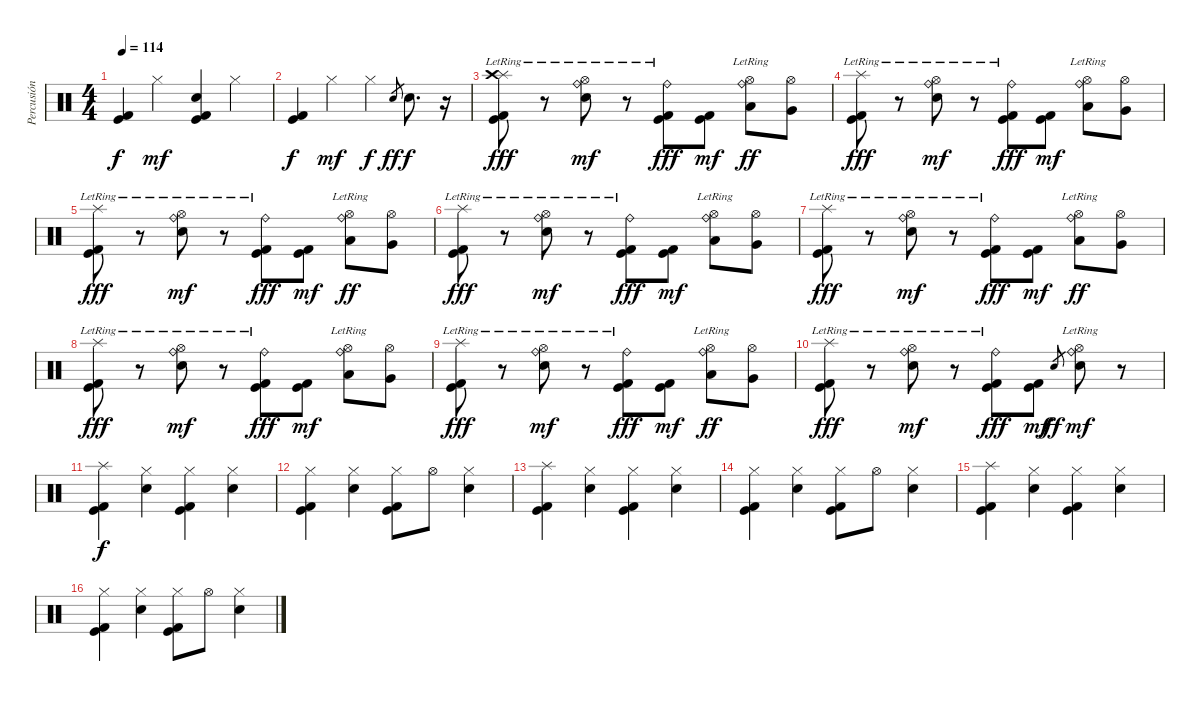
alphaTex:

\track ("Percusión" "Percusión") {instrument percussion}
\staff {score}
\articulation defaults
\ts (4 4)
\tempo 114
\clef neutral
\ks c
("Kick (hit) 2" "Kick (hit)").4{dy f} "Hi-Hat (closed)".4{dy mf} ("Electric Snare (hit)" "Kick (hit) 2" "Kick (hit)").4 "Hi-Hat (closed)".4 |
("Kick (hit) 2" "Kick (hit)").4{dy f} "Hi-Hat (closed)".4{dy mf} "Hi-Hat (closed)".4{dy f} "Electric Snare (hit)".8{gr dy ff} "Electric Snare (hit)".8{d dy f} r.16 |
("Splash (hit)"{lr} "Crash high (hit)" "Kick (hit) 2" "Kick (hit)").8{dy fff} r.8 ("Ride (bell)"{lr} "Hi-Hat (open)" "Electric Snare (hit)").8{dy mf} r.8 ("Ride (bell)"{lr} "Kick (hit) 2" "Kick (hit)").8{dy fff} ("Kick (hit) 2" "Kick (hit)").8{dy mf} ("Ride (bell)"{lr} "Hi-Hat (open)" "Low Tom (hit)").8{dy ff} ("Hi-Hat (open)" "Very Low Tom (hit)").8 |
("Splash (hit)"{lr} "Kick (hit) 2" "Kick (hit)").8{dy fff} r.8 ("Ride (bell)"{lr} "Hi-Hat (open)" "Electric Snare (hit)").8{dy mf} r.8 ("Ride (bell)"{lr} "Kick (hit) 2" "Kick (hit)").8{dy fff} ("Kick (hit) 2" "Kick (hit)").8{dy mf} ("Ride (bell)"{lr} "Hi-Hat (open)" "Low Tom (hit)").8 ("Hi-Hat (open)" "Very Low Tom (hit)").8 |
("Splash (hit)"{lr} "Kick (hit) 2" "Kick (hit)").8{dy fff} r.8 ("Ride (bell)"{lr} "Hi-Hat (open)" "Electric Snare (hit)").8{dy mf} r.8 ("Ride (bell)"{lr} "Kick (hit) 2" "Kick (hit)").8{dy fff} ("Kick (hit) 2" "Kick (hit)").8{dy mf} ("Ride (bell)"{lr} "Hi-Hat (open)" "Low Tom (hit)").8{dy ff} ("Hi-Hat (open)" "Very Low Tom (hit)").8 |
("Splash (hit)"{lr} "Kick (hit) 2" "Kick (hit)").8{dy fff} r.8 ("Ride (bell)"{lr} "Hi-Hat (open)" "Electric Snare (hit)").8{dy mf} r.8 ("Ride (bell)"{lr} "Kick (hit) 2" "Kick (hit)").8{dy fff} ("Kick (hit) 2" "Kick (hit)").8{dy mf} ("Ride (bell)"{lr} "Hi-Hat (open)" "Low Tom (hit)").8 ("Hi-Hat (open)" "Very Low Tom (hit)").8 |
("Splash (hit)"{lr} "Kick (hit) 2" "Kick (hit)").8{dy fff} r.8 ("Ride (bell)"{lr} "Hi-Hat (open)" "Electric Snare (hit)").8{dy mf} r.8 ("Ride (bell)"{lr} "Kick (hit) 2" "Kick (hit)").8{dy fff} ("Kick (hit) 2" "Kick (hit)").8{dy mf} ("Ride (bell)"{lr} "Hi-Hat (open)" "Low Tom (hit)").8{dy ff} ("Hi-Hat (open)" "Very Low Tom (hit)").8 |
("Splash (hit)"{lr} "Kick (hit) 2" "Kick (hit)").8{dy fff} r.8 ("Ride (bell)"{lr} "Hi-Hat (open)" "Electric Snare (hit)").8{dy mf} r.8 ("Ride (bell)"{lr} "Kick (hit) 2" "Kick (hit)").8{dy fff} ("Kick (hit) 2" "Kick (hit)").8{dy mf} ("Ride (bell)"{lr} "Hi-Hat (open)" "Low Tom (hit)").8 ("Hi-Hat (open)" "Very Low Tom (hit)").8 |
("Splash (hit)"{lr} "Kick (hit) 2" "Kick (hit)").8{dy fff} r.8 ("Ride (bell)"{lr} "Hi-Hat (open)" "Electric Snare (hit)").8{dy mf} r.8 ("Ride (bell)"{lr} "Kick (hit) 2" "Kick (hit)").8{dy fff} ("Kick (hit) 2" "Kick (hit)").8{dy mf} ("Ride (bell)"{lr} "Hi-Hat (open)" "Low Tom (hit)").8{dy ff} ("Hi-Hat (open)" "Very Low Tom (hit)").8 |
("Splash (hit)"{lr} "Kick (hit) 2" "Kick (hit)").8{dy fff} r.8 ("Ride (bell)"{lr} "Hi-Hat (open)" "Electric Snare (hit)").8{dy mf} r.8 ("Ride (bell)"{lr} "Kick (hit) 2" "Kick (hit)").8{dy fff} ("Kick (hit) 2" "Kick (hit)").8{dy mf} "Electric Snare (hit)".8{gr dy ff} ("Ride (bell)"{lr} "Hi-Hat (open)" "Electric Snare (hit)").8{dy mf} r.8 |
("Splash (hit)" "Kick (hit) 2" "Kick (hit)").4{dy f} ("Hi-Hat (closed)" "Electric Snare (hit)").4 ("Hi-Hat (closed)" "Kick (hit) 2" "Kick (hit)").4 ("Hi-Hat (closed)" "Electric Snare (hit)").4 |
("Hi-Hat (closed)" "Kick (hit) 2" "Kick (hit)").4 ("Hi-Hat (closed)" "Electric Snare (hit)").4 ("Hi-Hat (closed)" "Kick (hit) 2" "Kick (hit)").8 "Hi-Hat (open)".8 ("Hi-Hat (closed)" "Electric Snare (hit)").4 |
("Splash (hit)" "Kick (hit) 2" "Kick (hit)").4 ("Hi-Hat (closed)" "Electric Snare (hit)").4 ("Hi-Hat (closed)" "Kick (hit) 2" "Kick (hit)").4 ("Hi-Hat (closed)" "Electric Snare (hit)").4 |
("Hi-Hat (closed)" "Kick (hit) 2" "Kick (hit)").4 ("Hi-Hat (closed)" "Electric Snare (hit)").4 ("Hi-Hat (closed)" "Kick (hit) 2" "Kick (hit)").8 "Hi-Hat (open)".8 ("Hi-Hat (closed)" "Electric Snare (hit)").4 |
("Splash (hit)" "Kick (hit) 2" "Kick (hit)").4 ("Hi-Hat (closed)" "Electric Snare (hit)").4 ("Hi-Hat (closed)" "Kick (hit) 2" "Kick (hit)").4 ("Hi-Hat (closed)" "Electric Snare (hit)").4 |
("Hi-Hat (closed)" "Kick (hit) 2" "Kick (hit)").4 ("Hi-Hat (closed)" "Electric Snare (hit)").4 ("Hi-Hat (closed)" "Kick (hit) 2" "Kick (hit)").8 "Hi-Hat (open)".8 ("Hi-Hat (closed)" "Electric Snare (hit)").4
